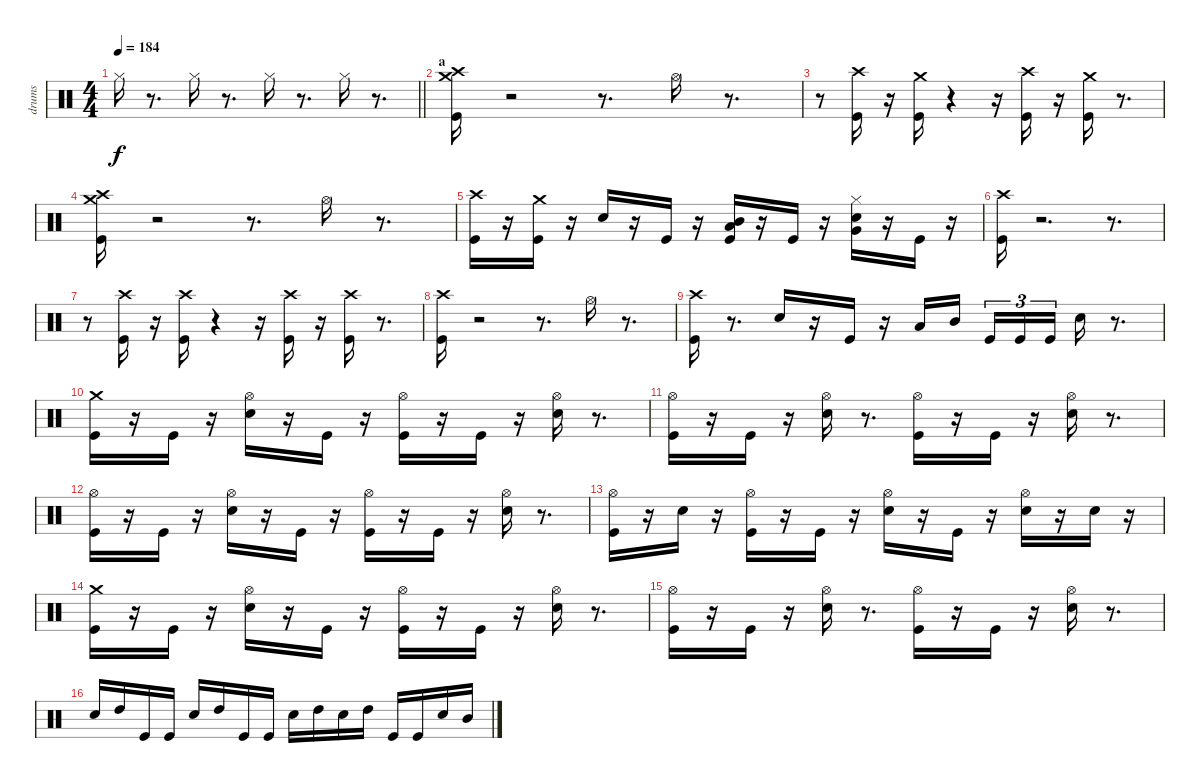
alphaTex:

\track ("drums" "drums") {instrument percussion}
\staff {score}
\articulation defaults
\ts (4 4)
\tempo 184
\clef neutral
\barLineRight lightlight
\ks c "Hi-Hat (closed)".16{dy f}
r.8{d} "Hi-Hat (closed)".16 r.8{d} "Hi-Hat (closed)".16 r.8{d} "Hi-Hat (closed)".16 r.8{d} |
\section ("" "a")
("Kick (hit)" "Crash high (hit)" "Crash medium (hit)").16 r.2 r.8{d} "Hi-Hat (open)".16 r.8{d} |
r.8 ("Kick (hit)" "Crash high (hit)").16 r.16 ("Kick (hit)" "Crash medium (hit)").16 r.4 r.16 ("Kick (hit)" "Crash high (hit)").16 r.16 ("Kick (hit)" "Crash medium (hit)").16 r.8{d} |
("Kick (hit)" "Crash high (hit)" "Crash medium (hit)").16 r.2 r.8{d} "Hi-Hat (open)".16 r.8{d} |
("Kick (hit)" "Crash high (hit)").16 r.16 ("Kick (hit)" "Crash medium (hit)").16 r.16 "Snare (hit) 2".16 r.16 "Kick (hit)".16 r.16 ("Kick (hit)" "Low Tom (hit)" "Mid Tom (hit)").16 r.16 "Kick (hit)".16 r.16 ("Snare (hit) 2" "Hi-Hat (closed)" "Very Low Tom (hit)").16 r.16 "Kick (hit)".16 r.16 |
("Kick (hit)" "Crash high (hit)").16 r.2{d} r.8{d} |
r.8 ("Kick (hit)" "Crash high (hit)").16 r.16 ("Kick (hit)" "Crash high (hit)").16 r.4 r.16 ("Kick (hit)" "Crash high (hit)").16 r.16 ("Kick (hit)" "Crash high (hit)").16 r.8{d} |
("Kick (hit)" "Crash high (hit)").16 r.2 r.8{d} "Hi-Hat (open)".16 r.8{d} |
("Kick (hit)" "Crash high (hit)").16 r.8{d} "Snare (hit) 2".16 r.16 "Kick (hit)".16 r.16 "Low Floor Tom (hit)".16 "Mid Tom (hit)".16 "Kick (hit)".16{tu (3 2)} "Kick (hit)".16{tu (3 2)} "Kick (hit)".16{tu (3 2)} "Snare (hit) 2".16 r.8{d} |
("Kick (hit)" "Crash medium (hit)").16 r.16 "Kick (hit)".16 r.16 ("Snare (hit) 2" "Hi-Hat (open)").16 r.16 "Kick (hit)".16 r.16 ("Kick (hit)" "Hi-Hat (open)").16 r.16 "Kick (hit)".16 r.16 ("Snare (hit) 2" "Hi-Hat (open)").16 r.8{d} |
("Kick (hit)" "Hi-Hat (open)").16 r.16 "Kick (hit)".16 r.16 ("Snare (hit) 2" "Hi-Hat (open)").16 r.8{d} ("Kick (hit)" "Hi-Hat (open)").16 r.16 "Kick (hit)".16 r.16 ("Snare (hit) 2" "Hi-Hat (open)").16 r.8{d} |
("Kick (hit)" "Hi-Hat (open)").16 r.16 "Kick (hit)".16 r.16 ("Snare (hit) 2" "Hi-Hat (open)").16 r.16 "Kick (hit)".16 r.16 ("Kick (hit)" "Hi-Hat (open)").16 r.16 "Kick (hit)".16 r.16 ("Snare (hit) 2" "Hi-Hat (open)").16 r.8{d} |
("Kick (hit)" "Hi-Hat (open)").16 r.16 "Snare (hit) 2".16 r.16 ("Kick (hit)" "Hi-Hat (open)").16 r.16 "Kick (hit)".16 r.16 ("Snare (hit) 2" "Hi-Hat (open)").16 r.16 "Kick (hit)".16 r.16 ("Snare (hit) 2" "Hi-Hat (open)").16 r.16 "Snare (hit) 2".16 r.16 |
("Kick (hit)" "Crash medium (hit)").16 r.16 "Kick (hit)".16 r.16 ("Snare (hit) 2" "Hi-Hat (open)").16 r.16 "Kick (hit)".16 r.16 ("Kick (hit)" "Hi-Hat (open)").16 r.16 "Kick (hit)".16 r.16 ("Snare (hit) 2" "Hi-Hat (open)").16 r.8{d} |
("Kick (hit)" "Hi-Hat (open)").16 r.16 "Kick (hit)".16 r.16 ("Snare (hit) 2" "Hi-Hat (open)").16 r.8{d} ("Kick (hit)" "Hi-Hat (open)").16 r.16 "Kick (hit)".16 r.16 ("Snare (hit) 2" "Hi-Hat (open)").16 r.8{d} |
"Snare (hit) 2".16 "High Tom (hit)".16 "Kick (hit)".16 "Kick (hit)".16 "Snare (hit) 2".16 "High Tom (hit)".16 "Kick (hit)".16 "Kick (hit)".16 "Snare (hit) 2".16 "High Tom (hit)".16 "Snare (hit) 2".16 "High Tom (hit)".16 "Kick (hit)".16 "Kick (hit)".16 "Snare (hit) 2".16 "Mid Tom (hit)".16
